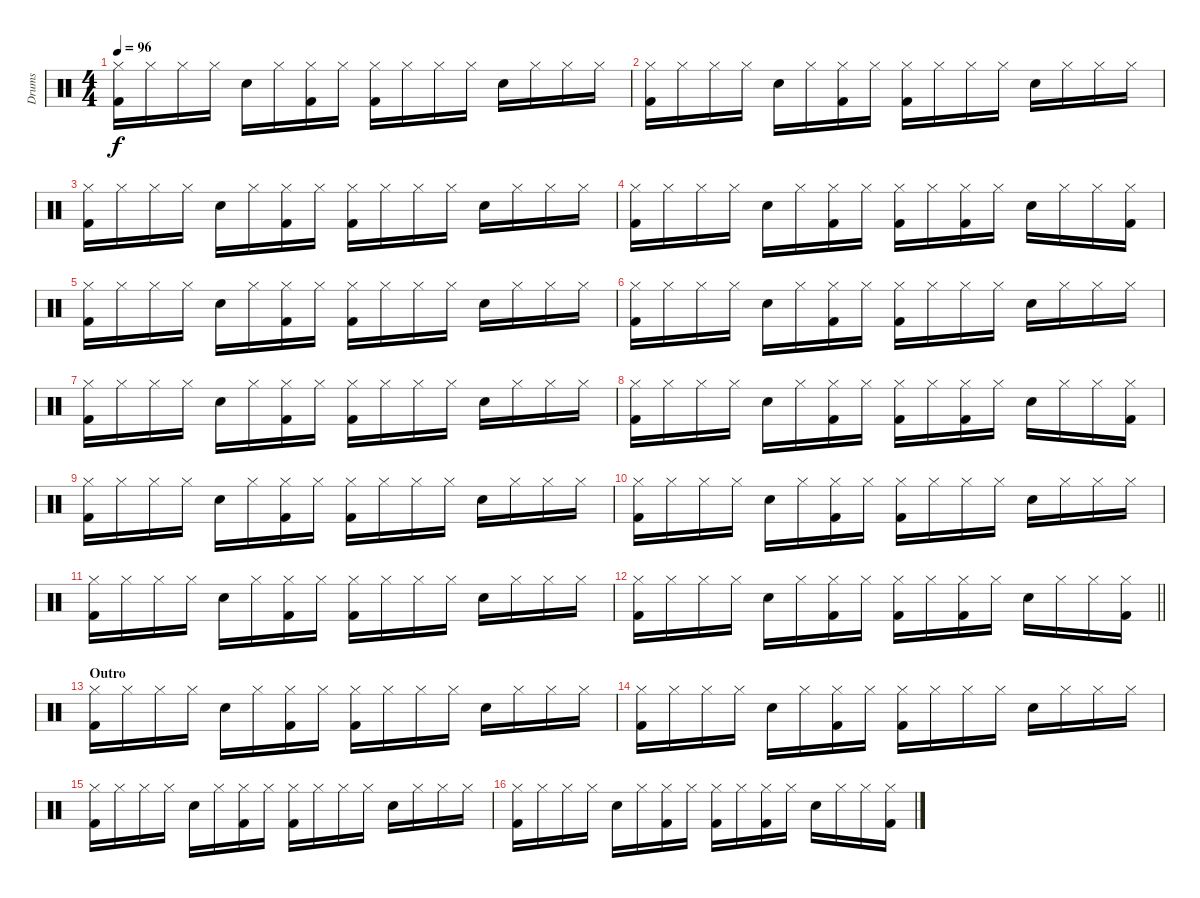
\track ("Drums" "Drums") {instrument percussion}
\staff {score}
\articulation defaults
\ts (4 4)
\tempo 96
\clef neutral
\ks c
("Hi-Hat (closed)" "Kick (hit) 2").16{dy f} "Hi-Hat (closed)".16 "Hi-Hat (closed)".16 "Hi-Hat (closed)".16 "Snare (hit) 2".16 "Hi-Hat (closed)".16 ("Hi-Hat (closed)" "Kick (hit) 2").16 "Hi-Hat (closed)".16 ("Hi-Hat (closed)" "Kick (hit) 2").16 "Hi-Hat (closed)".16 "Hi-Hat (closed)".16 "Hi-Hat (closed)".16 "Snare (hit) 2".16 "Hi-Hat (closed)".16 "Hi-Hat (closed)".16 "Hi-Hat (closed)".16 |
("Hi-Hat (closed)" "Kick (hit) 2").16 "Hi-Hat (closed)".16 "Hi-Hat (closed)".16 "Hi-Hat (closed)".16 "Snare (hit) 2".16 "Hi-Hat (closed)".16 ("Hi-Hat (closed)" "Kick (hit) 2").16 "Hi-Hat (closed)".16 ("Hi-Hat (closed)" "Kick (hit) 2").16 "Hi-Hat (closed)".16 "Hi-Hat (closed)".16 "Hi-Hat (closed)".16 "Snare (hit) 2".16 "Hi-Hat (closed)".16 "Hi-Hat (closed)".16 "Hi-Hat (closed)".16 |
("Hi-Hat (closed)" "Kick (hit) 2").16 "Hi-Hat (closed)".16 "Hi-Hat (closed)".16 "Hi-Hat (closed)".16 "Snare (hit) 2".16 "Hi-Hat (closed)".16 ("Hi-Hat (closed)" "Kick (hit) 2").16 "Hi-Hat (closed)".16 ("Hi-Hat (closed)" "Kick (hit) 2").16 "Hi-Hat (closed)".16 "Hi-Hat (closed)".16 "Hi-Hat (closed)".16 "Snare (hit) 2".16 "Hi-Hat (closed)".16 "Hi-Hat (closed)".16 "Hi-Hat (closed)".16 |
("Hi-Hat (closed)" "Kick (hit) 2").16 "Hi-Hat (closed)".16 "Hi-Hat (closed)".16 "Hi-Hat (closed)".16 "Snare (hit) 2".16 "Hi-Hat (closed)".16 ("Hi-Hat (closed)" "Kick (hit) 2").16 "Hi-Hat (closed)".16 ("Hi-Hat (closed)" "Kick (hit) 2").16 "Hi-Hat (closed)".16 ("Hi-Hat (closed)" "Kick (hit) 2").16 "Hi-Hat (closed)".16 "Snare (hit) 2".16 "Hi-Hat (closed)".16 "Hi-Hat (closed)".16 ("Hi-Hat (closed)" "Kick (hit) 2").16 |
("Hi-Hat (closed)" "Kick (hit) 2").16 "Hi-Hat (closed)".16 "Hi-Hat (closed)".16 "Hi-Hat (closed)".16 "Snare (hit) 2".16 "Hi-Hat (closed)".16 ("Hi-Hat (closed)" "Kick (hit) 2").16 "Hi-Hat (closed)".16 ("Hi-Hat (closed)" "Kick (hit) 2").16 "Hi-Hat (closed)".16 "Hi-Hat (closed)".16 "Hi-Hat (closed)".16 "Snare (hit) 2".16 "Hi-Hat (closed)".16 "Hi-Hat (closed)".16 "Hi-Hat (closed)".16 |
("Hi-Hat (closed)" "Kick (hit) 2").16 "Hi-Hat (closed)".16 "Hi-Hat (closed)".16 "Hi-Hat (closed)".16 "Snare (hit) 2".16 "Hi-Hat (closed)".16 ("Hi-Hat (closed)" "Kick (hit) 2").16 "Hi-Hat (closed)".16 ("Hi-Hat (closed)" "Kick (hit) 2").16 "Hi-Hat (closed)".16 "Hi-Hat (closed)".16 "Hi-Hat (closed)".16 "Snare (hit) 2".16 "Hi-Hat (closed)".16 "Hi-Hat (closed)".16 "Hi-Hat (closed)".16 |
("Hi-Hat (closed)" "Kick (hit) 2").16 "Hi-Hat (closed)".16 "Hi-Hat (closed)".16 "Hi-Hat (closed)".16 "Snare (hit) 2".16 "Hi-Hat (closed)".16 ("Hi-Hat (closed)" "Kick (hit) 2").16 "Hi-Hat (closed)".16 ("Hi-Hat (closed)" "Kick (hit) 2").16 "Hi-Hat (closed)".16 "Hi-Hat (closed)".16 "Hi-Hat (closed)".16 "Snare (hit) 2".16 "Hi-Hat (closed)".16 "Hi-Hat (closed)".16 "Hi-Hat (closed)".16 |
("Hi-Hat (closed)" "Kick (hit) 2").16 "Hi-Hat (closed)".16 "Hi-Hat (closed)".16 "Hi-Hat (closed)".16 "Snare (hit) 2".16 "Hi-Hat (closed)".16 ("Hi-Hat (closed)" "Kick (hit) 2").16 "Hi-Hat (closed)".16 ("Hi-Hat (closed)" "Kick (hit) 2").16 "Hi-Hat (closed)".16 ("Hi-Hat (closed)" "Kick (hit) 2").16 "Hi-Hat (closed)".16 "Snare (hit) 2".16 "Hi-Hat (closed)".16 "Hi-Hat (closed)".16 ("Hi-Hat (closed)" "Kick (hit) 2").16 |
("Hi-Hat (closed)" "Kick (hit) 2").16 "Hi-Hat (closed)".16 "Hi-Hat (closed)".16 "Hi-Hat (closed)".16 "Snare (hit) 2".16 "Hi-Hat (closed)".16 ("Hi-Hat (closed)" "Kick (hit) 2").16 "Hi-Hat (closed)".16 ("Hi-Hat (closed)" "Kick (hit) 2").16 "Hi-Hat (closed)".16 "Hi-Hat (closed)".16 "Hi-Hat (closed)".16 "Snare (hit) 2".16 "Hi-Hat (closed)".16 "Hi-Hat (closed)".16 "Hi-Hat (closed)".16 |
("Hi-Hat (closed)" "Kick (hit) 2").16 "Hi-Hat (closed)".16 "Hi-Hat (closed)".16 "Hi-Hat (closed)".16 "Snare (hit) 2".16 "Hi-Hat (closed)".16 ("Hi-Hat (closed)" "Kick (hit) 2").16 "Hi-Hat (closed)".16 ("Hi-Hat (closed)" "Kick (hit) 2").16 "Hi-Hat (closed)".16 "Hi-Hat (closed)".16 "Hi-Hat (closed)".16 "Snare (hit) 2".16 "Hi-Hat (closed)".16 "Hi-Hat (closed)".16 "Hi-Hat (closed)".16 |
("Hi-Hat (closed)" "Kick (hit) 2").16 "Hi-Hat (closed)".16 "Hi-Hat (closed)".16 "Hi-Hat (closed)".16 "Snare (hit) 2".16 "Hi-Hat (closed)".16 ("Hi-Hat (closed)" "Kick (hit) 2").16 "Hi-Hat (closed)".16 ("Hi-Hat (closed)" "Kick (hit) 2").16 "Hi-Hat (closed)".16 "Hi-Hat (closed)".16 "Hi-Hat (closed)".16 "Snare (hit) 2".16 "Hi-Hat (closed)".16 "Hi-Hat (closed)".16 "Hi-Hat (closed)".16 |
\barLineRight lightlight
("Hi-Hat (closed)" "Kick (hit) 2").16 "Hi-Hat (closed)".16 "Hi-Hat (closed)".16 "Hi-Hat (closed)".16 "Snare (hit) 2".16 "Hi-Hat (closed)".16 ("Hi-Hat (closed)" "Kick (hit) 2").16 "Hi-Hat (closed)".16 ("Hi-Hat (closed)" "Kick (hit) 2").16 "Hi-Hat (closed)".16 ("Hi-Hat (closed)" "Kick (hit) 2").16 "Hi-Hat (closed)".16 "Snare (hit) 2".16 "Hi-Hat (closed)".16 "Hi-Hat (closed)".16 ("Hi-Hat (closed)" "Kick (hit) 2").16 |
\section ("" "Outro")
("Hi-Hat (closed)" "Kick (hit) 2").16 "Hi-Hat (closed)".16 "Hi-Hat (closed)".16 "Hi-Hat (closed)".16 "Snare (hit) 2".16 "Hi-Hat (closed)".16 ("Hi-Hat (closed)" "Kick (hit) 2").16 "Hi-Hat (closed)".16 ("Hi-Hat (closed)" "Kick (hit) 2").16 "Hi-Hat (closed)".16 "Hi-Hat (closed)".16 "Hi-Hat (closed)".16 "Snare (hit) 2".16 "Hi-Hat (closed)".16 "Hi-Hat (closed)".16 "Hi-Hat (closed)".16 |
("Hi-Hat (closed)" "Kick (hit) 2").16 "Hi-Hat (closed)".16 "Hi-Hat (closed)".16 "Hi-Hat (closed)".16 "Snare (hit) 2".16 "Hi-Hat (closed)".16 ("Hi-Hat (closed)" "Kick (hit) 2").16 "Hi-Hat (closed)".16 ("Hi-Hat (closed)" "Kick (hit) 2").16 "Hi-Hat (closed)".16 "Hi-Hat (closed)".16 "Hi-Hat (closed)".16 "Snare (hit) 2".16 "Hi-Hat (closed)".16 "Hi-Hat (closed)".16 "Hi-Hat (closed)".16 |
("Hi-Hat (closed)" "Kick (hit) 2").16 "Hi-Hat (closed)".16 "Hi-Hat (closed)".16 "Hi-Hat (closed)".16 "Snare (hit) 2".16 "Hi-Hat (closed)".16 ("Hi-Hat (closed)" "Kick (hit) 2").16 "Hi-Hat (closed)".16 ("Hi-Hat (closed)" "Kick (hit) 2").16 "Hi-Hat (closed)".16 "Hi-Hat (closed)".16 "Hi-Hat (closed)".16 "Snare (hit) 2".16 "Hi-Hat (closed)".16 "Hi-Hat (closed)".16 "Hi-Hat (closed)".16 |
("Hi-Hat (closed)" "Kick (hit) 2").16 "Hi-Hat (closed)".16 "Hi-Hat (closed)".16 "Hi-Hat (closed)".16 "Snare (hit) 2".16 "Hi-Hat (closed)".16 ("Hi-Hat (closed)" "Kick (hit) 2").16 "Hi-Hat (closed)".16 ("Hi-Hat (closed)" "Kick (hit) 2").16 "Hi-Hat (closed)".16 ("Hi-Hat (closed)" "Kick (hit) 2").16 "Hi-Hat (closed)".16 "Snare (hit) 2".16 "Hi-Hat (closed)".16 "Hi-Hat (closed)".16 ("Hi-Hat (closed)" "Kick (hit) 2").16
